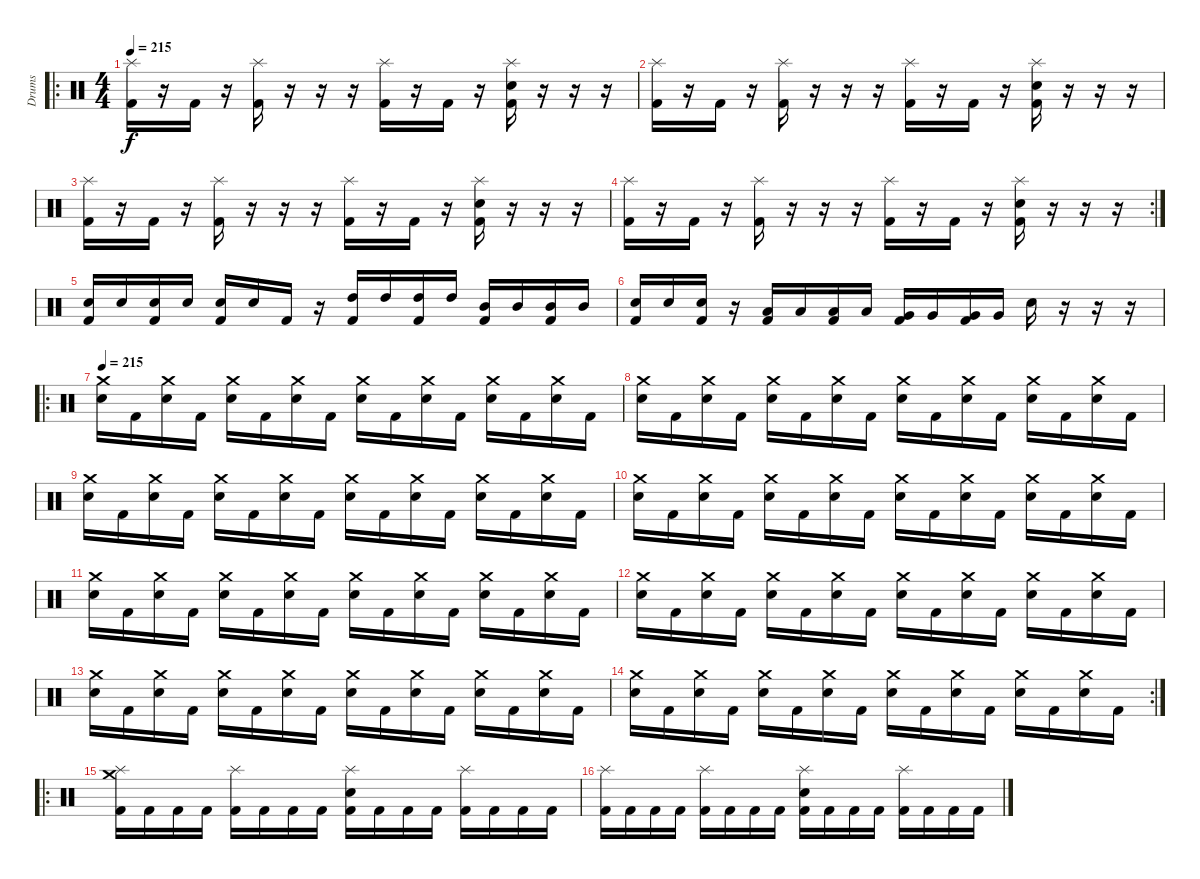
\track ("Drums" "Drums") {instrument percussion}
\staff {score}
\articulation defaults
\ro
\ts (4 4)
\tempo 215
\clef neutral
\ks c
("Splash (hit)" "Kick (hit) 2").16{dy f} r.16 "Kick (hit) 2".16 r.16 ("Splash (hit)" "Kick (hit) 2").16 r.16 r.16 r.16 ("Splash (hit)" "Kick (hit) 2").16 r.16 "Kick (hit) 2".16 r.16 ("Splash (hit)" "Electric Snare (hit)" "Kick (hit) 2").16 r.16 r.16 r.16 |
("Splash (hit)" "Kick (hit) 2").16 r.16 "Kick (hit) 2".16 r.16 ("Splash (hit)" "Kick (hit) 2").16 r.16 r.16 r.16 ("Splash (hit)" "Kick (hit) 2").16 r.16 "Kick (hit) 2".16 r.16 ("Splash (hit)" "Electric Snare (hit)" "Kick (hit) 2").16 r.16 r.16 r.16 |
("Splash (hit)" "Kick (hit) 2").16 r.16 "Kick (hit) 2".16 r.16 ("Splash (hit)" "Kick (hit) 2").16 r.16 r.16 r.16 ("Splash (hit)" "Kick (hit) 2").16 r.16 "Kick (hit) 2".16 r.16 ("Splash (hit)" "Electric Snare (hit)" "Kick (hit) 2").16 r.16 r.16 r.16 |
\rc 2
("Splash (hit)" "Kick (hit) 2").16 r.16 "Kick (hit) 2".16 r.16 ("Splash (hit)" "Kick (hit) 2").16 r.16 r.16 r.16 ("Splash (hit)" "Kick (hit) 2").16 r.16 "Kick (hit) 2".16 r.16 ("Splash (hit)" "Electric Snare (hit)" "Kick (hit) 2").16 r.16 r.16 r.16 |
("Electric Snare (hit)" "Kick (hit) 2").16 "Electric Snare (hit)".16 ("Electric Snare (hit)" "Kick (hit) 2").16 "Electric Snare (hit)".16 ("Electric Snare (hit)" "Kick (hit) 2").16 "Electric Snare (hit)".16 "Kick (hit) 2".16 r.16 ("High Tom (hit)" "Kick (hit) 2").16 "High Tom (hit)".16 ("High Tom (hit)" "Kick (hit) 2").16 "High Tom (hit)".16 ("Mid Tom (hit)" "Kick (hit) 2").16 "Mid Tom (hit)".16 ("Mid Tom (hit)" "Kick (hit) 2").16 "Mid Tom (hit)".16 |
("Electric Snare (hit)" "Kick (hit) 2").16 "Electric Snare (hit)".16 ("Electric Snare (hit)" "Kick (hit) 2").16 r.16 ("Low Tom (hit)" "Kick (hit) 2").16 "Low Tom (hit)".16 ("Low Tom (hit)" "Kick (hit) 2").16 "Low Tom (hit)".16 ("Very Low Tom (hit)" "Kick (hit) 2").16 "Very Low Tom (hit)".16 ("Very Low Tom (hit)" "Kick (hit) 2").16 "Very Low Tom (hit)".16 "Electric Snare (hit)".16 r.16 r.16 r.16 |
\ro
\tempo 215
("Crash medium (hit)" "Electric Snare (hit)").16 "Kick (hit) 2".16 ("Crash medium (hit)" "Electric Snare (hit)").16 "Kick (hit) 2".16 ("Crash medium (hit)" "Electric Snare (hit)").16 "Kick (hit) 2".16 ("Crash medium (hit)" "Electric Snare (hit)").16 "Kick (hit) 2".16 ("Crash medium (hit)" "Electric Snare (hit)").16 "Kick (hit) 2".16 ("Crash medium (hit)" "Electric Snare (hit)").16 "Kick (hit) 2".16 ("Crash medium (hit)" "Electric Snare (hit)").16 "Kick (hit) 2".16 ("Crash medium (hit)" "Electric Snare (hit)").16 "Kick (hit) 2".16 |
("Crash medium (hit)" "Electric Snare (hit)").16 "Kick (hit) 2".16 ("Crash medium (hit)" "Electric Snare (hit)").16 "Kick (hit) 2".16 ("Crash medium (hit)" "Electric Snare (hit)").16 "Kick (hit) 2".16 ("Crash medium (hit)" "Electric Snare (hit)").16 "Kick (hit) 2".16 ("Crash medium (hit)" "Electric Snare (hit)").16 "Kick (hit) 2".16 ("Crash medium (hit)" "Electric Snare (hit)").16 "Kick (hit) 2".16 ("Crash medium (hit)" "Electric Snare (hit)").16 "Kick (hit) 2".16 ("Crash medium (hit)" "Electric Snare (hit)").16 "Kick (hit) 2".16 |
("Crash medium (hit)" "Electric Snare (hit)").16 "Kick (hit) 2".16 ("Crash medium (hit)" "Electric Snare (hit)").16 "Kick (hit) 2".16 ("Crash medium (hit)" "Electric Snare (hit)").16 "Kick (hit) 2".16 ("Crash medium (hit)" "Electric Snare (hit)").16 "Kick (hit) 2".16 ("Crash medium (hit)" "Electric Snare (hit)").16 "Kick (hit) 2".16 ("Crash medium (hit)" "Electric Snare (hit)").16 "Kick (hit) 2".16 ("Crash medium (hit)" "Electric Snare (hit)").16 "Kick (hit) 2".16 ("Crash medium (hit)" "Electric Snare (hit)").16 "Kick (hit) 2".16 |
("Crash medium (hit)" "Electric Snare (hit)").16 "Kick (hit) 2".16 ("Crash medium (hit)" "Electric Snare (hit)").16 "Kick (hit) 2".16 ("Crash medium (hit)" "Electric Snare (hit)").16 "Kick (hit) 2".16 ("Crash medium (hit)" "Electric Snare (hit)").16 "Kick (hit) 2".16 ("Crash medium (hit)" "Electric Snare (hit)").16 "Kick (hit) 2".16 ("Crash medium (hit)" "Electric Snare (hit)").16 "Kick (hit) 2".16 ("Crash medium (hit)" "Electric Snare (hit)").16 "Kick (hit) 2".16 ("Crash medium (hit)" "Electric Snare (hit)").16 "Kick (hit) 2".16 |
("Crash medium (hit)" "Electric Snare (hit)").16 "Kick (hit) 2".16 ("Crash medium (hit)" "Electric Snare (hit)").16 "Kick (hit) 2".16 ("Crash medium (hit)" "Electric Snare (hit)").16 "Kick (hit) 2".16 ("Crash medium (hit)" "Electric Snare (hit)").16 "Kick (hit) 2".16 ("Crash medium (hit)" "Electric Snare (hit)").16 "Kick (hit) 2".16 ("Crash medium (hit)" "Electric Snare (hit)").16 "Kick (hit) 2".16 ("Crash medium (hit)" "Electric Snare (hit)").16 "Kick (hit) 2".16 ("Crash medium (hit)" "Electric Snare (hit)").16 "Kick (hit) 2".16 |
("Crash medium (hit)" "Electric Snare (hit)").16 "Kick (hit) 2".16 ("Crash medium (hit)" "Electric Snare (hit)").16 "Kick (hit) 2".16 ("Crash medium (hit)" "Electric Snare (hit)").16 "Kick (hit) 2".16 ("Crash medium (hit)" "Electric Snare (hit)").16 "Kick (hit) 2".16 ("Crash medium (hit)" "Electric Snare (hit)").16 "Kick (hit) 2".16 ("Crash medium (hit)" "Electric Snare (hit)").16 "Kick (hit) 2".16 ("Crash medium (hit)" "Electric Snare (hit)").16 "Kick (hit) 2".16 ("Crash medium (hit)" "Electric Snare (hit)").16 "Kick (hit) 2".16 |
("Crash medium (hit)" "Electric Snare (hit)").16 "Kick (hit) 2".16 ("Crash medium (hit)" "Electric Snare (hit)").16 "Kick (hit) 2".16 ("Crash medium (hit)" "Electric Snare (hit)").16 "Kick (hit) 2".16 ("Crash medium (hit)" "Electric Snare (hit)").16 "Kick (hit) 2".16 ("Crash medium (hit)" "Electric Snare (hit)").16 "Kick (hit) 2".16 ("Crash medium (hit)" "Electric Snare (hit)").16 "Kick (hit) 2".16 ("Crash medium (hit)" "Electric Snare (hit)").16 "Kick (hit) 2".16 ("Crash medium (hit)" "Electric Snare (hit)").16 "Kick (hit) 2".16 |
\rc 2
("Crash medium (hit)" "Electric Snare (hit)").16 "Kick (hit) 2".16 ("Crash medium (hit)" "Electric Snare (hit)").16 "Kick (hit) 2".16 ("Crash medium (hit)" "Electric Snare (hit)").16 "Kick (hit) 2".16 ("Crash medium (hit)" "Electric Snare (hit)").16 "Kick (hit) 2".16 ("Crash medium (hit)" "Electric Snare (hit)").16 "Kick (hit) 2".16 ("Crash medium (hit)" "Electric Snare (hit)").16 "Kick (hit) 2".16 ("Crash medium (hit)" "Electric Snare (hit)").16 "Kick (hit) 2".16 ("Crash medium (hit)" "Electric Snare (hit)").16 "Kick (hit) 2".16 |
\ro
("Crash medium (hit)" "Splash (hit)" "Kick (hit) 2").16 "Kick (hit) 2".16 "Kick (hit) 2".16 "Kick (hit) 2".16 ("Splash (hit)" "Kick (hit) 2").16 "Kick (hit) 2".16 "Kick (hit) 2".16 "Kick (hit) 2".16 ("Splash (hit)" "Electric Snare (hit)" "Kick (hit) 2").16 "Kick (hit) 2".16 "Kick (hit) 2".16 "Kick (hit) 2".16 ("Splash (hit)" "Kick (hit) 2").16 "Kick (hit) 2".16 "Kick (hit) 2".16 "Kick (hit) 2".16 |
("Splash (hit)" "Kick (hit) 2").16 "Kick (hit) 2".16 "Kick (hit) 2".16 "Kick (hit) 2".16 ("Splash (hit)" "Kick (hit) 2").16 "Kick (hit) 2".16 "Kick (hit) 2".16 "Kick (hit) 2".16 ("Splash (hit)" "Electric Snare (hit)" "Kick (hit) 2").16 "Kick (hit) 2".16 "Kick (hit) 2".16 "Kick (hit) 2".16 ("Splash (hit)" "Kick (hit) 2").16 "Kick (hit) 2".16 "Kick (hit) 2".16 "Kick (hit) 2".16
